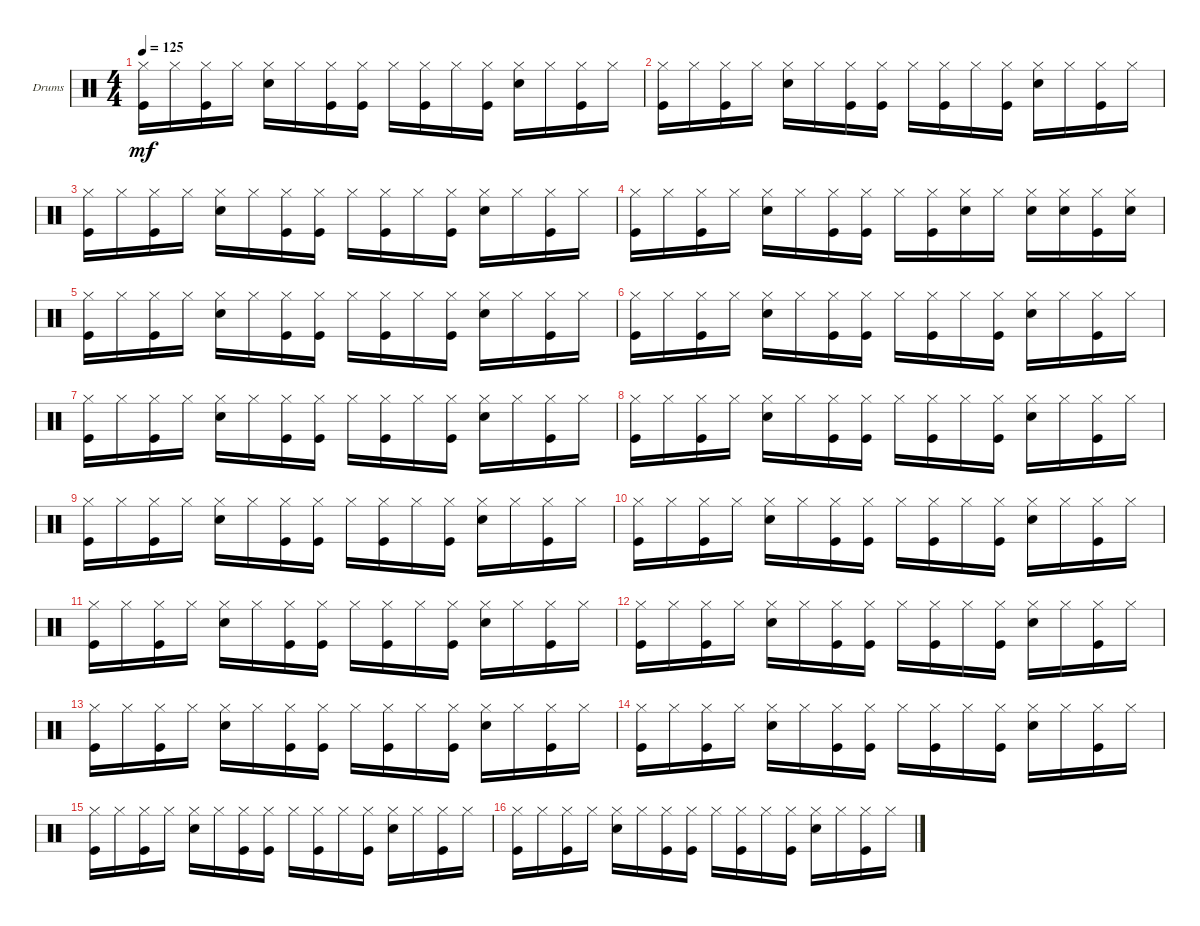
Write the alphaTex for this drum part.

\defaultSystemsLayout 4
\bracketExtendMode groupsimilarinstruments
\firstSystemTrackNameOrientation horizontal
\otherSystemsTrackNameOrientation horizontal
\track ("Drumkit" "Drums") {instrument percussion}
\staff {score}
\articulation defaults
\ts (4 4)
\tempo 125
\clef neutral
\ks c
("Hi-Hat (closed)" "Kick (hit)").16{dy mf} "Hi-Hat (closed)".16 ("Hi-Hat (closed)" "Kick (hit)").16 "Hi-Hat (closed)".16 ("Hi-Hat (closed)" "Snare (hit) 2").16 "Hi-Hat (closed)".16 ("Hi-Hat (closed)" "Kick (hit)").16 ("Hi-Hat (closed)" "Kick (hit)").16 "Hi-Hat (closed)".16 ("Hi-Hat (closed)" "Kick (hit)").16 "Hi-Hat (closed)".16 ("Hi-Hat (closed)" "Kick (hit)").16 ("Hi-Hat (closed)" "Snare (hit) 2").16 "Hi-Hat (closed)".16 ("Hi-Hat (closed)" "Kick (hit)").16 "Hi-Hat (closed)".16 |
("Hi-Hat (closed)" "Kick (hit)").16 "Hi-Hat (closed)".16 ("Hi-Hat (closed)" "Kick (hit)").16 "Hi-Hat (closed)".16 ("Hi-Hat (closed)" "Snare (hit) 2").16 "Hi-Hat (closed)".16 ("Hi-Hat (closed)" "Kick (hit)").16 ("Hi-Hat (closed)" "Kick (hit)").16 "Hi-Hat (closed)".16 ("Hi-Hat (closed)" "Kick (hit)").16 "Hi-Hat (closed)".16 ("Hi-Hat (closed)" "Kick (hit)").16 ("Hi-Hat (closed)" "Snare (hit) 2").16 "Hi-Hat (closed)".16 ("Hi-Hat (closed)" "Kick (hit)").16 "Hi-Hat (closed)".16 |
("Hi-Hat (closed)" "Kick (hit)").16 "Hi-Hat (closed)".16 ("Hi-Hat (closed)" "Kick (hit)").16 "Hi-Hat (closed)".16 ("Hi-Hat (closed)" "Snare (hit) 2").16 "Hi-Hat (closed)".16 ("Hi-Hat (closed)" "Kick (hit)").16 ("Hi-Hat (closed)" "Kick (hit)").16 "Hi-Hat (closed)".16 ("Hi-Hat (closed)" "Kick (hit)").16 "Hi-Hat (closed)".16 ("Hi-Hat (closed)" "Kick (hit)").16 ("Hi-Hat (closed)" "Snare (hit) 2").16 "Hi-Hat (closed)".16 ("Hi-Hat (closed)" "Kick (hit)").16 "Hi-Hat (closed)".16 |
("Hi-Hat (closed)" "Kick (hit)").16 "Hi-Hat (closed)".16 ("Hi-Hat (closed)" "Kick (hit)").16 "Hi-Hat (closed)".16 ("Hi-Hat (closed)" "Snare (hit) 2").16 "Hi-Hat (closed)".16 ("Hi-Hat (closed)" "Kick (hit)").16 ("Hi-Hat (closed)" "Kick (hit)").16 "Hi-Hat (closed)".16 ("Hi-Hat (closed)" "Kick (hit)").16 ("Hi-Hat (closed)" "Snare (hit) 2").16 "Hi-Hat (closed)".16 ("Hi-Hat (closed)" "Snare (hit) 2").16 ("Hi-Hat (closed)" "Snare (hit) 2").16 ("Hi-Hat (closed)" "Kick (hit)").16 ("Hi-Hat (closed)" "Snare (hit) 2").16 |
("Hi-Hat (closed)" "Kick (hit)").16 "Hi-Hat (closed)".16 ("Hi-Hat (closed)" "Kick (hit)").16 "Hi-Hat (closed)".16 ("Hi-Hat (closed)" "Snare (hit) 2").16 "Hi-Hat (closed)".16 ("Hi-Hat (closed)" "Kick (hit)").16 ("Hi-Hat (closed)" "Kick (hit)").16 "Hi-Hat (closed)".16 ("Hi-Hat (closed)" "Kick (hit)").16 "Hi-Hat (closed)".16 ("Hi-Hat (closed)" "Kick (hit)").16 ("Hi-Hat (closed)" "Snare (hit) 2").16 "Hi-Hat (closed)".16 ("Hi-Hat (closed)" "Kick (hit)").16 "Hi-Hat (closed)".16 |
("Hi-Hat (closed)" "Kick (hit)").16 "Hi-Hat (closed)".16 ("Hi-Hat (closed)" "Kick (hit)").16 "Hi-Hat (closed)".16 ("Hi-Hat (closed)" "Snare (hit) 2").16 "Hi-Hat (closed)".16 ("Hi-Hat (closed)" "Kick (hit)").16 ("Hi-Hat (closed)" "Kick (hit)").16 "Hi-Hat (closed)".16 ("Hi-Hat (closed)" "Kick (hit)").16 "Hi-Hat (closed)".16 ("Hi-Hat (closed)" "Kick (hit)").16 ("Hi-Hat (closed)" "Snare (hit) 2").16 "Hi-Hat (closed)".16 ("Hi-Hat (closed)" "Kick (hit)").16 "Hi-Hat (closed)".16 |
("Hi-Hat (closed)" "Kick (hit)").16 "Hi-Hat (closed)".16 ("Hi-Hat (closed)" "Kick (hit)").16 "Hi-Hat (closed)".16 ("Hi-Hat (closed)" "Snare (hit) 2").16 "Hi-Hat (closed)".16 ("Hi-Hat (closed)" "Kick (hit)").16 ("Hi-Hat (closed)" "Kick (hit)").16 "Hi-Hat (closed)".16 ("Hi-Hat (closed)" "Kick (hit)").16 "Hi-Hat (closed)".16 ("Hi-Hat (closed)" "Kick (hit)").16 ("Hi-Hat (closed)" "Snare (hit) 2").16 "Hi-Hat (closed)".16 ("Hi-Hat (closed)" "Kick (hit)").16 "Hi-Hat (closed)".16 |
("Hi-Hat (closed)" "Kick (hit)").16 "Hi-Hat (closed)".16 ("Hi-Hat (closed)" "Kick (hit)").16 "Hi-Hat (closed)".16 ("Hi-Hat (closed)" "Snare (hit) 2").16 "Hi-Hat (closed)".16 ("Hi-Hat (closed)" "Kick (hit)").16 ("Hi-Hat (closed)" "Kick (hit)").16 "Hi-Hat (closed)".16 ("Hi-Hat (closed)" "Kick (hit)").16 "Hi-Hat (closed)".16 ("Hi-Hat (closed)" "Kick (hit)").16 ("Hi-Hat (closed)" "Snare (hit) 2").16 "Hi-Hat (closed)".16 ("Hi-Hat (closed)" "Kick (hit)").16 "Hi-Hat (closed)".16 |
("Hi-Hat (closed)" "Kick (hit)").16 "Hi-Hat (closed)".16 ("Hi-Hat (closed)" "Kick (hit)").16 "Hi-Hat (closed)".16 ("Hi-Hat (closed)" "Snare (hit) 2").16 "Hi-Hat (closed)".16 ("Hi-Hat (closed)" "Kick (hit)").16 ("Hi-Hat (closed)" "Kick (hit)").16 "Hi-Hat (closed)".16 ("Hi-Hat (closed)" "Kick (hit)").16 "Hi-Hat (closed)".16 ("Hi-Hat (closed)" "Kick (hit)").16 ("Hi-Hat (closed)" "Snare (hit) 2").16 "Hi-Hat (closed)".16 ("Hi-Hat (closed)" "Kick (hit)").16 "Hi-Hat (closed)".16 |
("Hi-Hat (closed)" "Kick (hit)").16 "Hi-Hat (closed)".16 ("Hi-Hat (closed)" "Kick (hit)").16 "Hi-Hat (closed)".16 ("Hi-Hat (closed)" "Snare (hit) 2").16 "Hi-Hat (closed)".16 ("Hi-Hat (closed)" "Kick (hit)").16 ("Hi-Hat (closed)" "Kick (hit)").16 "Hi-Hat (closed)".16 ("Hi-Hat (closed)" "Kick (hit)").16 "Hi-Hat (closed)".16 ("Hi-Hat (closed)" "Kick (hit)").16 ("Hi-Hat (closed)" "Snare (hit) 2").16 "Hi-Hat (closed)".16 ("Hi-Hat (closed)" "Kick (hit)").16 "Hi-Hat (closed)".16 |
("Hi-Hat (closed)" "Kick (hit)").16 "Hi-Hat (closed)".16 ("Hi-Hat (closed)" "Kick (hit)").16 "Hi-Hat (closed)".16 ("Hi-Hat (closed)" "Snare (hit) 2").16 "Hi-Hat (closed)".16 ("Hi-Hat (closed)" "Kick (hit)").16 ("Hi-Hat (closed)" "Kick (hit)").16 "Hi-Hat (closed)".16 ("Hi-Hat (closed)" "Kick (hit)").16 "Hi-Hat (closed)".16 ("Hi-Hat (closed)" "Kick (hit)").16 ("Hi-Hat (closed)" "Snare (hit) 2").16 "Hi-Hat (closed)".16 ("Hi-Hat (closed)" "Kick (hit)").16 "Hi-Hat (closed)".16 |
("Hi-Hat (closed)" "Kick (hit)").16 "Hi-Hat (closed)".16 ("Hi-Hat (closed)" "Kick (hit)").16 "Hi-Hat (closed)".16 ("Hi-Hat (closed)" "Snare (hit) 2").16 "Hi-Hat (closed)".16 ("Hi-Hat (closed)" "Kick (hit)").16 ("Hi-Hat (closed)" "Kick (hit)").16 "Hi-Hat (closed)".16 ("Hi-Hat (closed)" "Kick (hit)").16 "Hi-Hat (closed)".16 ("Hi-Hat (closed)" "Kick (hit)").16 ("Hi-Hat (closed)" "Snare (hit) 2").16 "Hi-Hat (closed)".16 ("Hi-Hat (closed)" "Kick (hit)").16 "Hi-Hat (closed)".16 |
("Hi-Hat (closed)" "Kick (hit)").16 "Hi-Hat (closed)".16 ("Hi-Hat (closed)" "Kick (hit)").16 "Hi-Hat (closed)".16 ("Hi-Hat (closed)" "Snare (hit) 2").16 "Hi-Hat (closed)".16 ("Hi-Hat (closed)" "Kick (hit)").16 ("Hi-Hat (closed)" "Kick (hit)").16 "Hi-Hat (closed)".16 ("Hi-Hat (closed)" "Kick (hit)").16 "Hi-Hat (closed)".16 ("Hi-Hat (closed)" "Kick (hit)").16 ("Hi-Hat (closed)" "Snare (hit) 2").16 "Hi-Hat (closed)".16 ("Hi-Hat (closed)" "Kick (hit)").16 "Hi-Hat (closed)".16 |
("Hi-Hat (closed)" "Kick (hit)").16 "Hi-Hat (closed)".16 ("Hi-Hat (closed)" "Kick (hit)").16 "Hi-Hat (closed)".16 ("Hi-Hat (closed)" "Snare (hit) 2").16 "Hi-Hat (closed)".16 ("Hi-Hat (closed)" "Kick (hit)").16 ("Hi-Hat (closed)" "Kick (hit)").16 "Hi-Hat (closed)".16 ("Hi-Hat (closed)" "Kick (hit)").16 "Hi-Hat (closed)".16 ("Hi-Hat (closed)" "Kick (hit)").16 ("Hi-Hat (closed)" "Snare (hit) 2").16 "Hi-Hat (closed)".16 ("Hi-Hat (closed)" "Kick (hit)").16 "Hi-Hat (closed)".16 |
("Hi-Hat (closed)" "Kick (hit)").16 "Hi-Hat (closed)".16 ("Hi-Hat (closed)" "Kick (hit)").16 "Hi-Hat (closed)".16 ("Hi-Hat (closed)" "Snare (hit) 2").16 "Hi-Hat (closed)".16 ("Hi-Hat (closed)" "Kick (hit)").16 ("Hi-Hat (closed)" "Kick (hit)").16 "Hi-Hat (closed)".16 ("Hi-Hat (closed)" "Kick (hit)").16 "Hi-Hat (closed)".16 ("Hi-Hat (closed)" "Kick (hit)").16 ("Hi-Hat (closed)" "Snare (hit) 2").16 "Hi-Hat (closed)".16 ("Hi-Hat (closed)" "Kick (hit)").16 "Hi-Hat (closed)".16 |
("Hi-Hat (closed)" "Kick (hit)").16 "Hi-Hat (closed)".16 ("Hi-Hat (closed)" "Kick (hit)").16 "Hi-Hat (closed)".16 ("Hi-Hat (closed)" "Snare (hit) 2").16 "Hi-Hat (closed)".16 ("Hi-Hat (closed)" "Kick (hit)").16 ("Hi-Hat (closed)" "Kick (hit)").16 "Hi-Hat (closed)".16 ("Hi-Hat (closed)" "Kick (hit)").16 "Hi-Hat (closed)".16 ("Hi-Hat (closed)" "Kick (hit)").16 ("Hi-Hat (closed)" "Snare (hit) 2").16 "Hi-Hat (closed)".16 ("Hi-Hat (closed)" "Kick (hit)").16 "Hi-Hat (closed)".16
